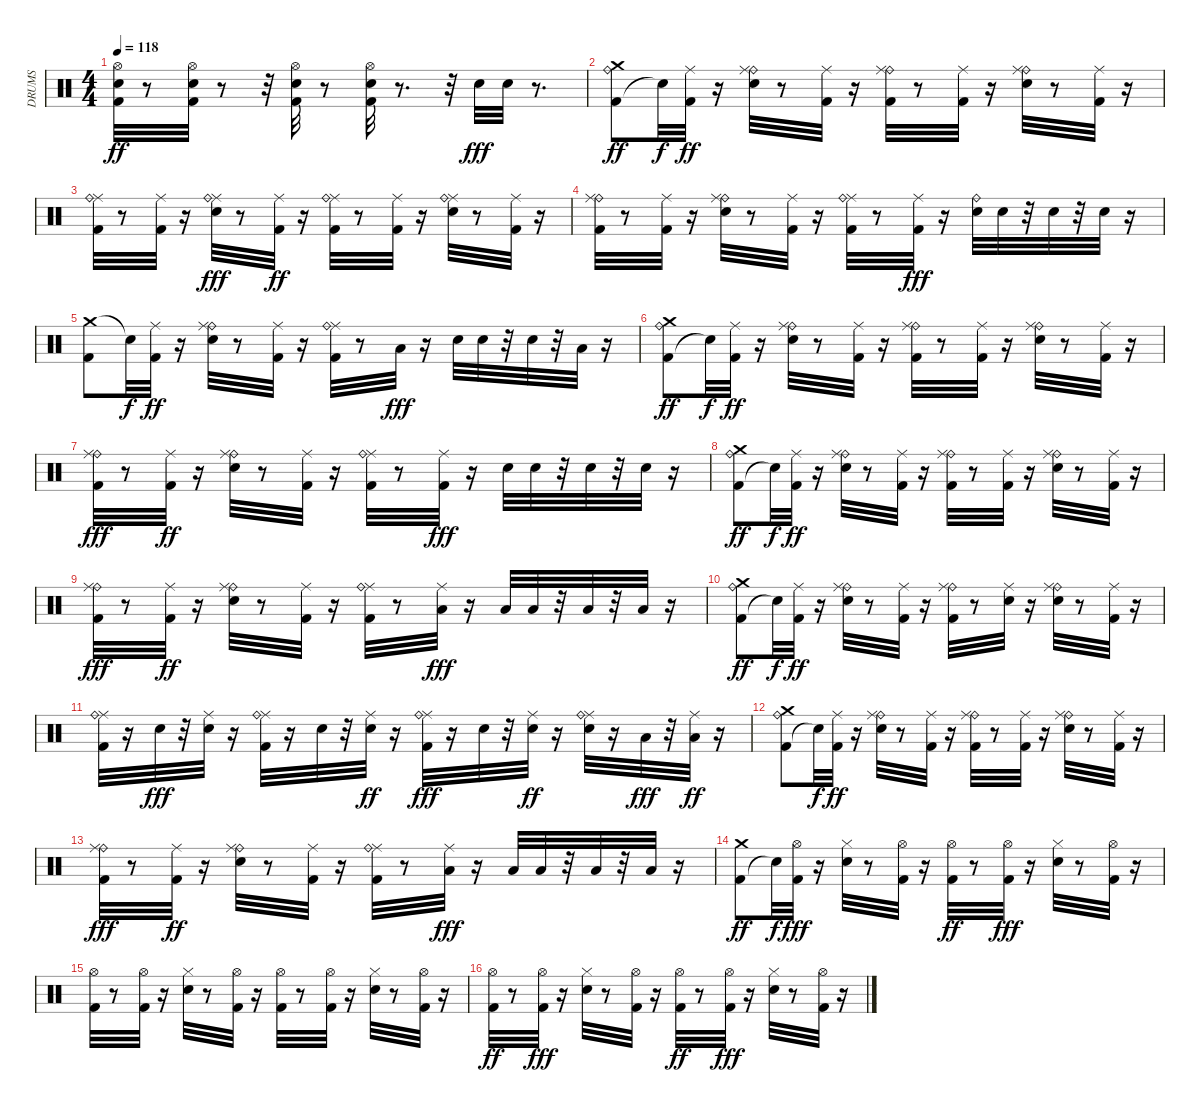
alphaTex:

\track ("DRUMS" "DRUMS") {instrument percussion}
\staff {score}
\articulation defaults
\ts (4 4)
\tempo 118
\clef neutral
\ks c
("Kick (hit) 2" "Snare (hit) 2" "Hi-Hat (open)").32{dy ff} r.8 ("Kick (hit) 2" "Snare (hit) 2" "Hi-Hat (open)").32 r.8 r.32 ("Kick (hit) 2" "Snare (hit) 2" "Hi-Hat (open)").32 r.8 ("Hi-Hat (open)" "Kick (hit) 2" "Snare (hit) 2").32 r.8{d} r.32 "Snare (hit) 2".32{dy fff} "Snare (hit) 2".32 r.8{d} |
("Kick (hit) 2" "Crash medium (hit)" "Ride (bell)").8{dy ff} "Snare (hit)"{t}.32{dy f} ("Kick (hit) 2" "Ride (middle)").32{dy ff} r.16 ("Ride (bell)" "Snare (hit) 2" "Ride (middle)").32 r.8 ("Kick (hit) 2" "Ride (middle)").32 r.16 ("Ride (bell)" "Kick (hit) 2" "Ride (middle)").32 r.8 ("Kick (hit) 2" "Ride (middle)").32 r.16 ("Ride (bell)" "Snare (hit) 2" "Ride (middle)").32 r.8 ("Kick (hit) 2" "Ride (middle)").32 r.16 |
("Kick (hit) 2" "Ride (middle)" "Ride (bell)").32 r.8 ("Kick (hit) 2" "Ride (middle)").32 r.16 ("Ride (middle)" "Snare (hit) 2" "Ride (bell)").32{dy fff} r.8 ("Kick (hit) 2" "Ride (middle)").32{dy ff} r.16 ("Kick (hit) 2" "Ride (middle)" "Ride (bell)").32 r.8 ("Kick (hit) 2" "Ride (middle)").32 r.16 ("Snare (hit) 2" "Ride (middle)" "Ride (bell)").32 r.8 ("Kick (hit) 2" "Ride (middle)").32 r.16 |
("Ride (bell)" "Kick (hit) 2" "Ride (middle)").32 r.8 ("Kick (hit) 2" "Ride (middle)").32 r.16 ("Ride (bell)" "Snare (hit) 2" "Ride (middle)").32 r.8 ("Kick (hit) 2" "Ride (middle)").32 r.16 ("Kick (hit) 2" "Ride (middle)" "Ride (bell)").32 r.8 ("Ride (middle)" "Kick (hit) 2").32{dy fff} r.16 ("Ride (bell)" "Snare (hit) 2").32 "Snare (hit) 2".32 r.32 "Snare (hit) 2".32 r.32 "Snare (hit) 2".32 r.16 |
("Crash medium (hit)" "Kick (hit) 2").8 "Snare (hit)"{t}.32{dy f} ("Kick (hit) 2" "Ride (middle)").32{dy ff} r.16 ("Ride (bell)" "Snare (hit) 2" "Ride (middle)").32 r.8 ("Kick (hit) 2" "Ride (middle)").32 r.16 ("Kick (hit) 2" "Ride (middle)" "Ride (bell)").32 r.8 "Low Tom (hit)".32{dy fff} r.16 "Snare (hit) 2".32 "Snare (hit) 2".32 r.32 "Snare (hit) 2".32 r.32 "Low Floor Tom (hit)".32 r.16 |
("Kick (hit) 2" "Crash medium (hit)" "Ride (bell)").8{dy ff} "Snare (hit)"{t}.32{dy f} ("Kick (hit) 2" "Ride (middle)").32{dy ff} r.16 ("Ride (bell)" "Snare (hit) 2" "Ride (middle)").32 r.8 ("Kick (hit) 2" "Ride (middle)").32 r.16 ("Ride (bell)" "Kick (hit) 2" "Ride (middle)").32 r.8 ("Kick (hit) 2" "Ride (middle)").32 r.16 ("Ride (bell)" "Snare (hit) 2" "Ride (middle)").32 r.8 ("Kick (hit) 2" "Ride (middle)").32 r.16 |
("Ride (bell)" "Ride (middle)" "Kick (hit) 2").32{dy fff} r.8 ("Kick (hit) 2" "Ride (middle)").32{dy ff} r.16 ("Ride (bell)" "Snare (hit) 2" "Ride (middle)").32 r.8 ("Kick (hit) 2" "Ride (middle)").32 r.16 ("Kick (hit) 2" "Ride (middle)" "Ride (bell)").32 r.8 ("Ride (middle)" "Kick (hit) 2").32{dy fff} r.16 "Snare (hit) 2".32 "Snare (hit) 2".32 r.32 "Snare (hit) 2".32 r.32 "Snare (hit) 2".32 r.16 |
("Kick (hit) 2" "Crash medium (hit)" "Ride (bell)").8{dy ff} "Snare (hit)"{t}.32{dy f} ("Kick (hit) 2" "Ride (middle)").32{dy ff} r.16 ("Ride (bell)" "Snare (hit) 2" "Ride (middle)").32 r.8 ("Kick (hit) 2" "Ride (middle)").32 r.16 ("Ride (bell)" "Kick (hit) 2" "Ride (middle)").32 r.8 ("Kick (hit) 2" "Ride (middle)").32 r.16 ("Ride (bell)" "Snare (hit) 2" "Ride (middle)").32 r.8 ("Kick (hit) 2" "Ride (middle)").32 r.16 |
("Ride (bell)" "Ride (middle)" "Kick (hit) 2").32{dy fff} r.8 ("Kick (hit) 2" "Ride (middle)").32{dy ff} r.16 ("Ride (bell)" "Snare (hit) 2" "Ride (middle)").32 r.8 ("Kick (hit) 2" "Ride (middle)").32 r.16 ("Kick (hit) 2" "Ride (middle)" "Ride (bell)").32 r.8 ("Ride (middle)" "Low Tom (hit)").32{dy fff} r.16 "Low Tom (hit)".32 "Low Tom (hit)".32 r.32 "Low Floor Tom (hit)".32 r.32 "Low Floor Tom (hit)".32 r.16 |
("Kick (hit) 2" "Crash medium (hit)" "Ride (bell)").8{dy ff} "Snare (hit)"{t}.32{dy f} ("Kick (hit) 2" "Ride (middle)").32{dy ff} r.16 ("Ride (bell)" "Snare (hit) 2" "Ride (middle)").32 r.8 ("Kick (hit) 2" "Ride (middle)").32 r.16 ("Ride (bell)" "Kick (hit) 2" "Ride (middle)").32 r.8 ("Snare (hit) 2" "Ride (middle)").32 r.16 ("Ride (bell)" "Snare (hit) 2" "Ride (middle)").32 r.8 ("Kick (hit) 2" "Ride (middle)").32 r.16 |
("Kick (hit) 2" "Ride (middle)" "Ride (bell)").32 r.16 "Snare (hit) 2".32{dy fff} r.32 ("Ride (middle)" "Snare (hit) 2").32 r.16 ("Ride (middle)" "Ride (bell)" "Kick (hit) 2").32 r.16 "Snare (hit) 2".32 r.32 ("Snare (hit) 2" "Ride (middle)").32{dy ff} r.16 ("Ride (middle)" "Ride (bell)" "Kick (hit) 2").32{dy fff} r.16 "Snare (hit) 2".32 r.32 ("Snare (hit) 2" "Ride (middle)").32{dy ff} r.16 ("Snare (hit) 2" "Ride (middle)" "Ride (bell)").32 r.16 "Low Tom (hit)".32{dy fff} r.32 ("Low Floor Tom (hit)" "Ride (middle)").32{dy ff} r.16 |
("Kick (hit) 2" "Crash medium (hit)" "Ride (bell)").8 "Snare (hit)"{t}.32{dy f} ("Kick (hit) 2" "Ride (middle)").32{dy ff} r.16 ("Ride (bell)" "Snare (hit) 2" "Ride (middle)").32 r.8 ("Kick (hit) 2" "Ride (middle)").32 r.16 ("Ride (bell)" "Kick (hit) 2" "Ride (middle)").32 r.8 ("Kick (hit) 2" "Ride (middle)").32 r.16 ("Ride (bell)" "Snare (hit) 2" "Ride (middle)").32 r.8 ("Kick (hit) 2" "Ride (middle)").32 r.16 |
("Ride (bell)" "Ride (middle)" "Kick (hit) 2").32{dy fff} r.8 ("Kick (hit) 2" "Ride (middle)").32{dy ff} r.16 ("Ride (bell)" "Snare (hit) 2" "Ride (middle)").32 r.8 ("Kick (hit) 2" "Ride (middle)").32 r.16 ("Kick (hit) 2" "Ride (middle)" "Ride (bell)").32 r.8 ("Ride (middle)" "Low Tom (hit)").32{dy fff} r.16 "Low Floor Tom (hit)".32 "Low Floor Tom (hit)".32 r.32 "Low Floor Tom (hit)".32 r.32 "Low Floor Tom (hit)".32 r.16 |
("Kick (hit) 2" "Crash medium (hit)").8{dy ff} "Snare (hit)"{t}.32{dy f} ("Kick (hit) 2" "Hi-Hat (open)").32{dy fff} r.16 ("Hi-Hat (closed)" "Snare (hit) 2").32 r.8 ("Kick (hit) 2" "Hi-Hat (open)").32 r.16 ("Kick (hit) 2" "Hi-Hat (open)").32{dy ff} r.8 ("Hi-Hat (open)" "Kick (hit) 2").32{dy fff} r.16 ("Hi-Hat (closed)" "Snare (hit) 2").32 r.8 ("Hi-Hat (open)" "Kick (hit) 2").32 r.16 |
("Hi-Hat (open)" "Kick (hit) 2").32 r.8 ("Hi-Hat (open)" "Kick (hit) 2").32 r.16 ("Snare (hit) 2" "Hi-Hat (closed)").32 r.8 ("Hi-Hat (open)" "Kick (hit) 2").32 r.16 ("Hi-Hat (open)" "Kick (hit) 2").32 r.8 ("Hi-Hat (open)" "Kick (hit) 2").32 r.16 ("Hi-Hat (closed)" "Snare (hit) 2").32 r.8 ("Hi-Hat (open)" "Kick (hit) 2").32 r.16 |
("Kick (hit) 2" "Hi-Hat (open)").32{dy ff} r.8 ("Kick (hit) 2" "Hi-Hat (open)").32{dy fff} r.16 ("Hi-Hat (closed)" "Snare (hit) 2").32 r.8 ("Kick (hit) 2" "Hi-Hat (open)").32 r.16 ("Kick (hit) 2" "Hi-Hat (open)").32{dy ff} r.8 ("Hi-Hat (open)" "Kick (hit) 2").32{dy fff} r.16 ("Hi-Hat (closed)" "Snare (hit) 2").32 r.8 ("Hi-Hat (open)" "Kick (hit) 2").32 r.16
